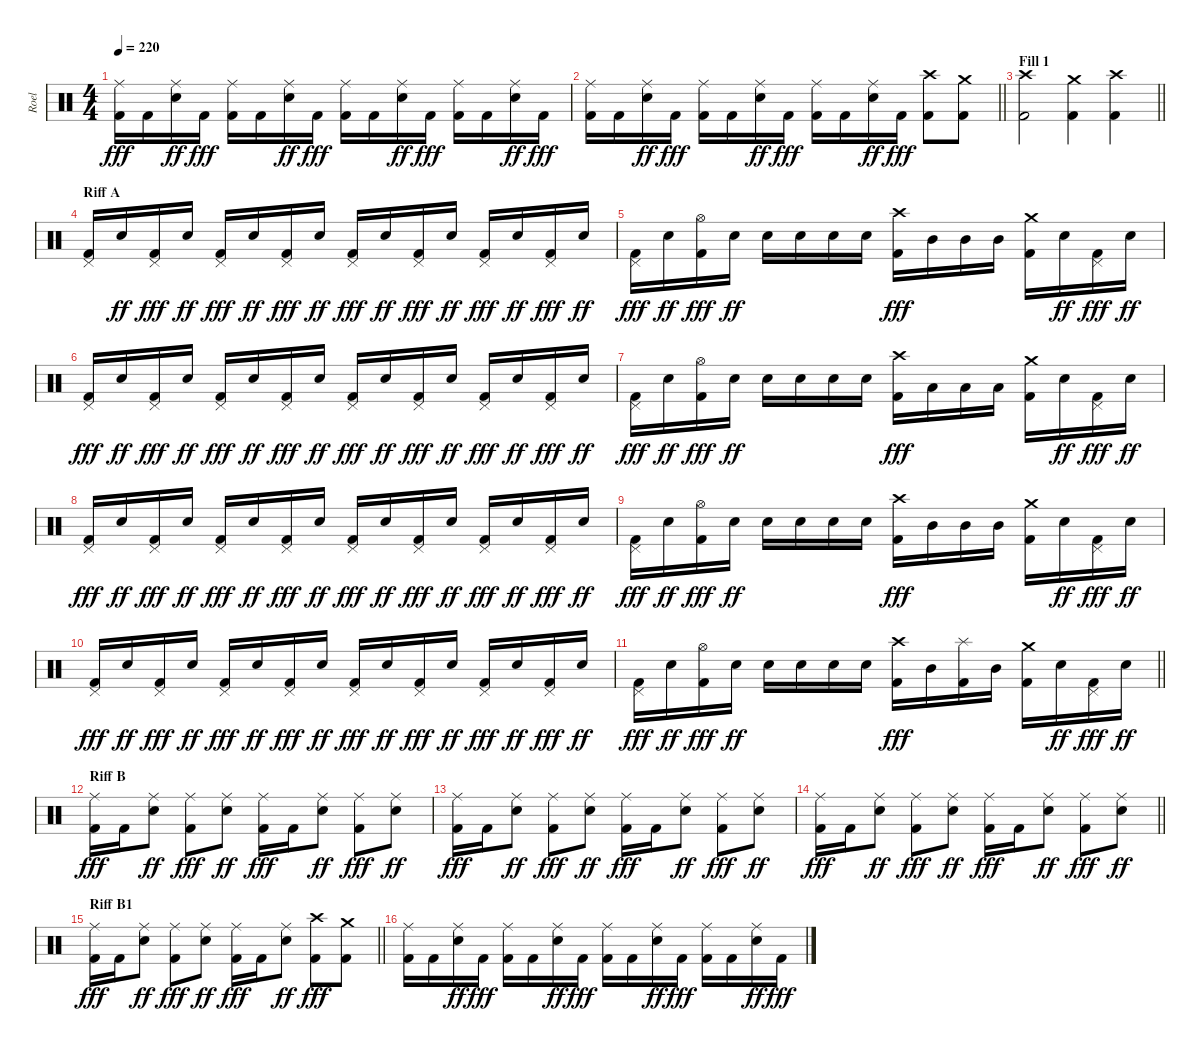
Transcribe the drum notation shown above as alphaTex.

\track ("Roel" "Roel") {instrument percussion}
\staff {score}
\articulation defaults
\ts (4 4)
\tempo 220
\clef neutral
\ks c
("Ride (middle)" "Kick (hit) 2").16{dy fff} "Kick (hit) 2".16 ("Ride (middle)" "Snare (hit) 2").16{dy ff} "Kick (hit) 2".16{dy fff} ("Ride (middle)" "Kick (hit) 2").16 "Kick (hit) 2".16 ("Ride (middle)" "Snare (hit) 2").16{dy ff} "Kick (hit) 2".16{dy fff} ("Ride (middle)" "Kick (hit) 2").16 "Kick (hit) 2".16 ("Ride (middle)" "Snare (hit) 2").16{dy ff} "Kick (hit) 2".16{dy fff} ("Ride (middle)" "Kick (hit) 2").16 "Kick (hit) 2".16 ("Ride (middle)" "Snare (hit) 2").16{dy ff} "Kick (hit) 2".16{dy fff} |
\barLineRight lightlight
("Ride (middle)" "Kick (hit) 2").16 "Kick (hit) 2".16 ("Ride (middle)" "Snare (hit) 2").16{dy ff} "Kick (hit) 2".16{dy fff} ("Ride (middle)" "Kick (hit) 2").16 "Kick (hit) 2".16 ("Ride (middle)" "Snare (hit) 2").16{dy ff} "Kick (hit) 2".16{dy fff} ("Ride (middle)" "Kick (hit) 2").16 "Kick (hit) 2".16 ("Ride (middle)" "Snare (hit) 2").16{dy ff} "Kick (hit) 2".16{dy fff} ("Crash high (hit)" "Kick (hit) 2").8 ("Crash medium (hit)" "Kick (hit) 2").8 |
\section ("" "Fill 1")
\barLineRight lightlight
("Crash high (hit)" "Kick (hit) 2").2 ("Crash medium (hit)" "Kick (hit) 2").4 ("Crash high (hit)" "Kick (hit) 2").4 |
\section ("" "Riff A")
("Pedal Hi-Hat (hit)" "Kick (hit) 2").16 "Snare (hit) 2".16{dy ff} ("Pedal Hi-Hat (hit)" "Kick (hit) 2").16{dy fff} "Snare (hit) 2".16{dy ff} ("Pedal Hi-Hat (hit)" "Kick (hit) 2").16{dy fff} "Snare (hit) 2".16{dy ff} ("Pedal Hi-Hat (hit)" "Kick (hit) 2").16{dy fff} "Snare (hit) 2".16{dy ff} ("Pedal Hi-Hat (hit)" "Kick (hit) 2").16{dy fff} "Snare (hit) 2".16{dy ff} ("Pedal Hi-Hat (hit)" "Kick (hit) 2").16{dy fff} "Snare (hit) 2".16{dy ff} ("Pedal Hi-Hat (hit)" "Kick (hit) 2").16{dy fff} "Snare (hit) 2".16{dy ff} ("Pedal Hi-Hat (hit)" "Kick (hit) 2").16{dy fff} "Snare (hit) 2".16{dy ff} |
("Pedal Hi-Hat (hit)" "Kick (hit) 2").16{dy fff} "Snare (hit) 2".16{dy ff} ("Hi-Hat (open)" "Kick (hit) 2").16{dy fff} "Snare (hit) 2".16{dy ff} "Snare (hit) 2".16 "Snare (hit) 2".16 "Snare (hit) 2".16 "Snare (hit) 2".16 ("Crash high (hit)" "Kick (hit) 2").16{dy fff} "Mid Tom (hit)".16 "Mid Tom (hit)".16 "Mid Tom (hit)".16 ("Crash medium (hit)" "Kick (hit) 2").16 "Snare (hit) 2".16{dy ff} ("Pedal Hi-Hat (hit)" "Kick (hit) 2").16{dy fff} "Snare (hit) 2".16{dy ff} |
("Pedal Hi-Hat (hit)" "Kick (hit) 2").16{dy fff} "Snare (hit) 2".16{dy ff} ("Pedal Hi-Hat (hit)" "Kick (hit) 2").16{dy fff} "Snare (hit) 2".16{dy ff} ("Pedal Hi-Hat (hit)" "Kick (hit) 2").16{dy fff} "Snare (hit) 2".16{dy ff} ("Pedal Hi-Hat (hit)" "Kick (hit) 2").16{dy fff} "Snare (hit) 2".16{dy ff} ("Pedal Hi-Hat (hit)" "Kick (hit) 2").16{dy fff} "Snare (hit) 2".16{dy ff} ("Pedal Hi-Hat (hit)" "Kick (hit) 2").16{dy fff} "Snare (hit) 2".16{dy ff} ("Pedal Hi-Hat (hit)" "Kick (hit) 2").16{dy fff} "Snare (hit) 2".16{dy ff} ("Pedal Hi-Hat (hit)" "Kick (hit) 2").16{dy fff} "Snare (hit) 2".16{dy ff} |
("Pedal Hi-Hat (hit)" "Kick (hit) 2").16{dy fff} "Snare (hit) 2".16{dy ff} ("Hi-Hat (open)" "Kick (hit) 2").16{dy fff} "Snare (hit) 2".16{dy ff} "Snare (hit) 2".16 "Snare (hit) 2".16 "Snare (hit) 2".16 "Snare (hit) 2".16 ("Crash high (hit)" "Kick (hit) 2").16{dy fff} "Low Tom (hit)".16 "Low Tom (hit)".16 "Low Tom (hit)".16 ("Crash medium (hit)" "Kick (hit) 2").16 "Snare (hit) 2".16{dy ff} ("Pedal Hi-Hat (hit)" "Kick (hit) 2").16{dy fff} "Snare (hit) 2".16{dy ff} |
("Pedal Hi-Hat (hit)" "Kick (hit) 2").16{dy fff} "Snare (hit) 2".16{dy ff} ("Pedal Hi-Hat (hit)" "Kick (hit) 2").16{dy fff} "Snare (hit) 2".16{dy ff} ("Pedal Hi-Hat (hit)" "Kick (hit) 2").16{dy fff} "Snare (hit) 2".16{dy ff} ("Pedal Hi-Hat (hit)" "Kick (hit) 2").16{dy fff} "Snare (hit) 2".16{dy ff} ("Pedal Hi-Hat (hit)" "Kick (hit) 2").16{dy fff} "Snare (hit) 2".16{dy ff} ("Pedal Hi-Hat (hit)" "Kick (hit) 2").16{dy fff} "Snare (hit) 2".16{dy ff} ("Pedal Hi-Hat (hit)" "Kick (hit) 2").16{dy fff} "Snare (hit) 2".16{dy ff} ("Pedal Hi-Hat (hit)" "Kick (hit) 2").16{dy fff} "Snare (hit) 2".16{dy ff} |
("Pedal Hi-Hat (hit)" "Kick (hit) 2").16{dy fff} "Snare (hit) 2".16{dy ff} ("Hi-Hat (open)" "Kick (hit) 2").16{dy fff} "Snare (hit) 2".16{dy ff} "Snare (hit) 2".16 "Snare (hit) 2".16 "Snare (hit) 2".16 "Snare (hit) 2".16 ("Crash high (hit)" "Kick (hit) 2").16{dy fff} "Mid Tom (hit)".16 "Mid Tom (hit)".16 "Mid Tom (hit)".16 ("Crash medium (hit)" "Kick (hit) 2").16 "Snare (hit) 2".16{dy ff} ("Pedal Hi-Hat (hit)" "Kick (hit) 2").16{dy fff} "Snare (hit) 2".16{dy ff} |
("Pedal Hi-Hat (hit)" "Kick (hit) 2").16{dy fff} "Snare (hit) 2".16{dy ff} ("Pedal Hi-Hat (hit)" "Kick (hit) 2").16{dy fff} "Snare (hit) 2".16{dy ff} ("Pedal Hi-Hat (hit)" "Kick (hit) 2").16{dy fff} "Snare (hit) 2".16{dy ff} ("Pedal Hi-Hat (hit)" "Kick (hit) 2").16{dy fff} "Snare (hit) 2".16{dy ff} ("Pedal Hi-Hat (hit)" "Kick (hit) 2").16{dy fff} "Snare (hit) 2".16{dy ff} ("Pedal Hi-Hat (hit)" "Kick (hit) 2").16{dy fff} "Snare (hit) 2".16{dy ff} ("Pedal Hi-Hat (hit)" "Kick (hit) 2").16{dy fff} "Snare (hit) 2".16{dy ff} ("Pedal Hi-Hat (hit)" "Kick (hit) 2").16{dy fff} "Snare (hit) 2".16{dy ff} |
\barLineRight lightlight
("Pedal Hi-Hat (hit)" "Kick (hit) 2").16{dy fff} "Snare (hit) 2".16{dy ff} ("Hi-Hat (open)" "Kick (hit) 2").16{dy fff} "Snare (hit) 2".16{dy ff} "Snare (hit) 2".16 "Snare (hit) 2".16 "Snare (hit) 2".16 "Snare (hit) 2".16 ("Crash high (hit)" "Kick (hit) 2").16{dy fff} "Mid Tom (hit)".16 ("Splash (hit)" "Kick (hit) 2").16 "Mid Tom (hit)".16 ("Crash medium (hit)" "Kick (hit) 2").16 "Snare (hit) 2".16{dy ff} ("Pedal Hi-Hat (hit)" "Kick (hit) 2").16{dy fff} "Snare (hit) 2".16{dy ff} |
\section ("" "Riff B")
("Ride (middle)" "Kick (hit) 2").16{dy fff} "Kick (hit) 2".16 ("Ride (middle)" "Snare (hit) 2").8{dy ff} ("Ride (middle)" "Kick (hit) 2").8{dy fff} ("Ride (middle)" "Snare (hit) 2").8{dy ff} ("Ride (middle)" "Kick (hit) 2").16{dy fff} "Kick (hit) 2".16 ("Ride (middle)" "Snare (hit) 2").8{dy ff} ("Ride (middle)" "Kick (hit) 2").8{dy fff} ("Ride (middle)" "Snare (hit) 2").8{dy ff} |
("Ride (middle)" "Kick (hit) 2").16{dy fff} "Kick (hit) 2".16 ("Ride (middle)" "Snare (hit) 2").8{dy ff} ("Ride (middle)" "Kick (hit) 2").8{dy fff} ("Ride (middle)" "Snare (hit) 2").8{dy ff} ("Ride (middle)" "Kick (hit) 2").16{dy fff} "Kick (hit) 2".16 ("Ride (middle)" "Snare (hit) 2").8{dy ff} ("Ride (middle)" "Kick (hit) 2").8{dy fff} ("Ride (middle)" "Snare (hit) 2").8{dy ff} |
\barLineRight lightlight
("Ride (middle)" "Kick (hit) 2").16{dy fff} "Kick (hit) 2".16 ("Ride (middle)" "Snare (hit) 2").8{dy ff} ("Ride (middle)" "Kick (hit) 2").8{dy fff} ("Ride (middle)" "Snare (hit) 2").8{dy ff} ("Ride (middle)" "Kick (hit) 2").16{dy fff} "Kick (hit) 2".16 ("Ride (middle)" "Snare (hit) 2").8{dy ff} ("Ride (middle)" "Kick (hit) 2").8{dy fff} ("Ride (middle)" "Snare (hit) 2").8{dy ff} |
\section ("" "Riff B1")
\barLineRight lightlight
("Ride (middle)" "Kick (hit) 2").16{dy fff} "Kick (hit) 2".16 ("Ride (middle)" "Snare (hit) 2").8{dy ff} ("Ride (middle)" "Kick (hit) 2").8{dy fff} ("Ride (middle)" "Snare (hit) 2").8{dy ff} ("Ride (middle)" "Kick (hit) 2").16{dy fff} "Kick (hit) 2".16 ("Ride (middle)" "Snare (hit) 2").8{dy ff} ("Crash high (hit)" "Kick (hit) 2").8{dy fff} ("Crash medium (hit)" "Kick (hit) 2").8 |
("Ride (middle)" "Kick (hit) 2").16 "Kick (hit) 2".16 ("Ride (middle)" "Snare (hit) 2").16{dy ff} "Kick (hit) 2".16{dy fff} ("Ride (middle)" "Kick (hit) 2").16 "Kick (hit) 2".16 ("Ride (middle)" "Snare (hit) 2").16{dy ff} "Kick (hit) 2".16{dy fff} ("Ride (middle)" "Kick (hit) 2").16 "Kick (hit) 2".16 ("Ride (middle)" "Snare (hit) 2").16{dy ff} "Kick (hit) 2".16{dy fff} ("Ride (middle)" "Kick (hit) 2").16 "Kick (hit) 2".16 ("Ride (middle)" "Snare (hit) 2").16{dy ff} "Kick (hit) 2".16{dy fff}
